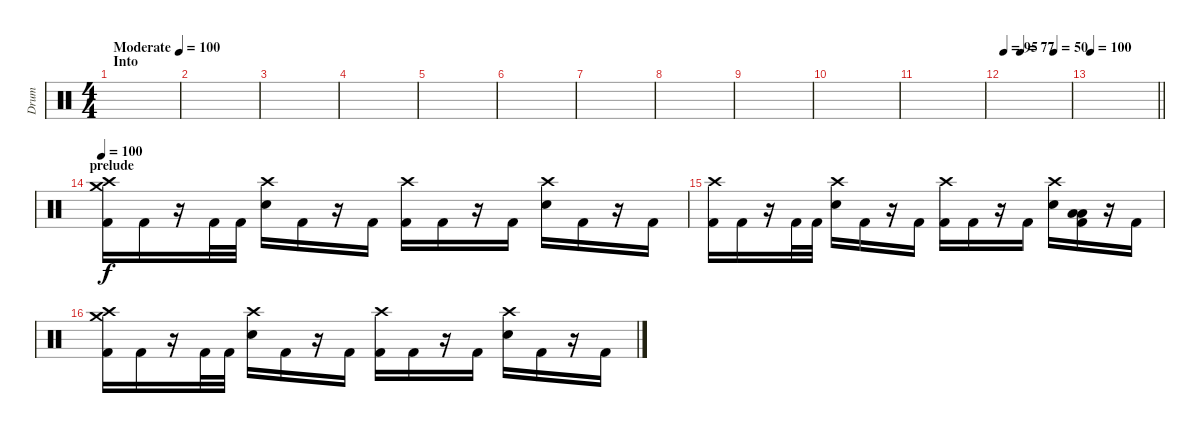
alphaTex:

\track ("Drum" "Drum") {instrument percussion}
\staff {score}
\articulation defaults
\ts (4 4)
\section ("" "Into")
\tempo (100 "Moderate")
\clef neutral
\ks c
|
|
|
|
|
|
|
|
|
|
|
\tempo 95
\tempo (77 0.25)
\tempo (30 0.75)
\tempo (50 0.75)
|
\tempo 100
\barLineRight lightlight
|
\section ("" "prelude")
\tempo 100
("Crash high (hit)" "Crash medium (hit)" "Kick (hit) 2").16 "Kick (hit) 2".16 r.16 "Kick (hit) 2".32 "Kick (hit) 2".32 ("Crash high (hit)" "Electric Snare (hit)").16 "Kick (hit) 2".16 r.16 "Kick (hit) 2".16 ("Crash high (hit)" "Kick (hit) 2").16 "Kick (hit) 2".16 r.16 "Kick (hit) 2".16 ("Crash high (hit)" "Electric Snare (hit)").16 "Kick (hit) 2".16 r.16 "Kick (hit) 2".16 |
("Crash high (hit)" "Kick (hit) 2").16 "Kick (hit) 2".16 r.16 "Kick (hit) 2".32 "Kick (hit) 2".32 ("Crash high (hit)" "Electric Snare (hit)").16 "Kick (hit) 2".16 r.16 "Kick (hit) 2".16 ("Crash high (hit)" "Kick (hit) 2").16 "Kick (hit) 2".16 r.16 "Kick (hit) 2".16 ("Crash high (hit)" "Electric Snare (hit)").16 ("Low Floor Tom (hit)" "Low Tom (hit)" "Kick (hit) 2").16 r.16 "Kick (hit) 2".16 |
("Crash high (hit)" "Crash medium (hit)" "Kick (hit) 2").16 "Kick (hit) 2".16 r.16 "Kick (hit) 2".32 "Kick (hit) 2".32 ("Crash high (hit)" "Electric Snare (hit)").16 "Kick (hit) 2".16 r.16 "Kick (hit) 2".16 ("Crash high (hit)" "Kick (hit) 2").16 "Kick (hit) 2".16 r.16 "Kick (hit) 2".16 ("Crash high (hit)" "Electric Snare (hit)").16 "Kick (hit) 2".16 r.16 "Kick (hit) 2".16
